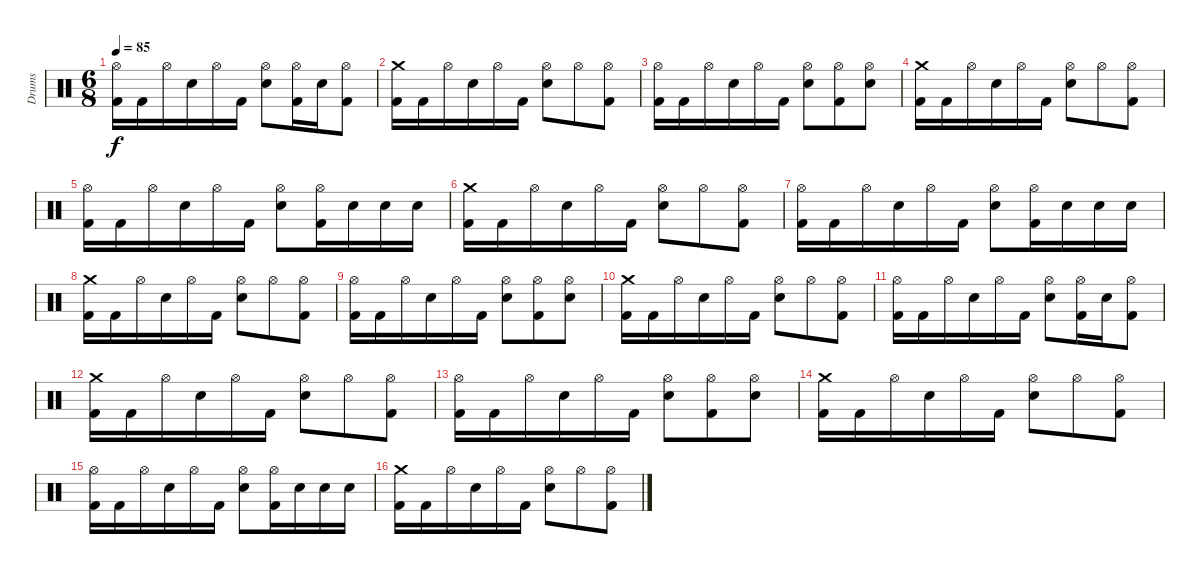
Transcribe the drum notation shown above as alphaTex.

\track ("Drums" "Drums") {instrument percussion}
\staff {score}
\articulation defaults
\ts (6 8)
\tempo 85
\clef neutral
\ks c
("Hi-Hat (open)" "Kick (hit) 2").16{dy f} "Kick (hit) 2".16 "Hi-Hat (open)".16 "Electric Snare (hit)".16 "Hi-Hat (open)".16 "Kick (hit) 2".16 ("Hi-Hat (open)" "Electric Snare (hit)").8 ("Hi-Hat (open)" "Kick (hit) 2").16 "Electric Snare (hit)".16 ("Hi-Hat (open)" "Kick (hit) 2").8 |
("Crash medium (hit)" "Kick (hit) 2").16 "Kick (hit) 2".16 "Hi-Hat (open)".16 "Electric Snare (hit)".16 "Hi-Hat (open)".16 "Kick (hit) 2".16 ("Hi-Hat (open)" "Electric Snare (hit)").8 "Hi-Hat (open)".8 ("Hi-Hat (open)" "Kick (hit) 2").8 |
("Hi-Hat (open)" "Kick (hit) 2").16 "Kick (hit) 2".16 "Hi-Hat (open)".16 "Electric Snare (hit)".16 "Hi-Hat (open)".16 "Kick (hit) 2".16 ("Hi-Hat (open)" "Electric Snare (hit)").8 ("Hi-Hat (open)" "Kick (hit) 2").8 ("Hi-Hat (open)" "Electric Snare (hit)").8 |
("Crash medium (hit)" "Kick (hit) 2").16 "Kick (hit) 2".16 "Hi-Hat (open)".16 "Electric Snare (hit)".16 "Hi-Hat (open)".16 "Kick (hit) 2".16 ("Hi-Hat (open)" "Electric Snare (hit)").8 "Hi-Hat (open)".8 ("Hi-Hat (open)" "Kick (hit) 2").8 |
("Hi-Hat (open)" "Kick (hit) 2").16 "Kick (hit) 2".16 "Hi-Hat (open)".16 "Electric Snare (hit)".16 "Hi-Hat (open)".16 "Kick (hit) 2".16 ("Hi-Hat (open)" "Electric Snare (hit)").8 ("Hi-Hat (open)" "Kick (hit) 2").16 "Electric Snare (hit)".16 "Electric Snare (hit)".16 "Electric Snare (hit)".16 |
("Crash medium (hit)" "Kick (hit) 2").16 "Kick (hit) 2".16 "Hi-Hat (open)".16 "Electric Snare (hit)".16 "Hi-Hat (open)".16 "Kick (hit) 2".16 ("Hi-Hat (open)" "Electric Snare (hit)").8 "Hi-Hat (open)".8 ("Hi-Hat (open)" "Kick (hit) 2").8 |
("Hi-Hat (open)" "Kick (hit) 2").16 "Kick (hit) 2".16 "Hi-Hat (open)".16 "Electric Snare (hit)".16 "Hi-Hat (open)".16 "Kick (hit) 2".16 ("Hi-Hat (open)" "Electric Snare (hit)").8 ("Hi-Hat (open)" "Kick (hit) 2").16 "Electric Snare (hit)".16 "Electric Snare (hit)".16 "Electric Snare (hit)".16 |
("Crash medium (hit)" "Kick (hit) 2").16 "Kick (hit) 2".16 "Hi-Hat (open)".16 "Electric Snare (hit)".16 "Hi-Hat (open)".16 "Kick (hit) 2".16 ("Hi-Hat (open)" "Electric Snare (hit)").8 "Hi-Hat (open)".8 ("Hi-Hat (open)" "Kick (hit) 2").8 |
("Hi-Hat (open)" "Kick (hit) 2").16 "Kick (hit) 2".16 "Hi-Hat (open)".16 "Electric Snare (hit)".16 "Hi-Hat (open)".16 "Kick (hit) 2".16 ("Hi-Hat (open)" "Electric Snare (hit)").8 ("Hi-Hat (open)" "Kick (hit) 2").8 ("Hi-Hat (open)" "Electric Snare (hit)").8 |
("Crash medium (hit)" "Kick (hit) 2").16 "Kick (hit) 2".16 "Hi-Hat (open)".16 "Electric Snare (hit)".16 "Hi-Hat (open)".16 "Kick (hit) 2".16 ("Hi-Hat (open)" "Electric Snare (hit)").8 "Hi-Hat (open)".8 ("Hi-Hat (open)" "Kick (hit) 2").8 |
("Hi-Hat (open)" "Kick (hit) 2").16 "Kick (hit) 2".16 "Hi-Hat (open)".16 "Electric Snare (hit)".16 "Hi-Hat (open)".16 "Kick (hit) 2".16 ("Hi-Hat (open)" "Electric Snare (hit)").8 ("Hi-Hat (open)" "Kick (hit) 2").16 "Electric Snare (hit)".16 ("Hi-Hat (open)" "Kick (hit) 2").8 |
("Crash medium (hit)" "Kick (hit) 2").16 "Kick (hit) 2".16 "Hi-Hat (open)".16 "Electric Snare (hit)".16 "Hi-Hat (open)".16 "Kick (hit) 2".16 ("Hi-Hat (open)" "Electric Snare (hit)").8 "Hi-Hat (open)".8 ("Hi-Hat (open)" "Kick (hit) 2").8 |
("Hi-Hat (open)" "Kick (hit) 2").16 "Kick (hit) 2".16 "Hi-Hat (open)".16 "Electric Snare (hit)".16 "Hi-Hat (open)".16 "Kick (hit) 2".16 ("Hi-Hat (open)" "Electric Snare (hit)").8 ("Hi-Hat (open)" "Kick (hit) 2").8 ("Hi-Hat (open)" "Electric Snare (hit)").8 |
("Crash medium (hit)" "Kick (hit) 2").16 "Kick (hit) 2".16 "Hi-Hat (open)".16 "Electric Snare (hit)".16 "Hi-Hat (open)".16 "Kick (hit) 2".16 ("Hi-Hat (open)" "Electric Snare (hit)").8 "Hi-Hat (open)".8 ("Hi-Hat (open)" "Kick (hit) 2").8 |
("Hi-Hat (open)" "Kick (hit) 2").16 "Kick (hit) 2".16 "Hi-Hat (open)".16 "Electric Snare (hit)".16 "Hi-Hat (open)".16 "Kick (hit) 2".16 ("Hi-Hat (open)" "Electric Snare (hit)").8 ("Hi-Hat (open)" "Kick (hit) 2").16 "Electric Snare (hit)".16 "Electric Snare (hit)".16 "Electric Snare (hit)".16 |
("Crash medium (hit)" "Kick (hit) 2").16 "Kick (hit) 2".16 "Hi-Hat (open)".16 "Electric Snare (hit)".16 "Hi-Hat (open)".16 "Kick (hit) 2".16 ("Hi-Hat (open)" "Electric Snare (hit)").8 "Hi-Hat (open)".8 ("Hi-Hat (open)" "Kick (hit) 2").8
